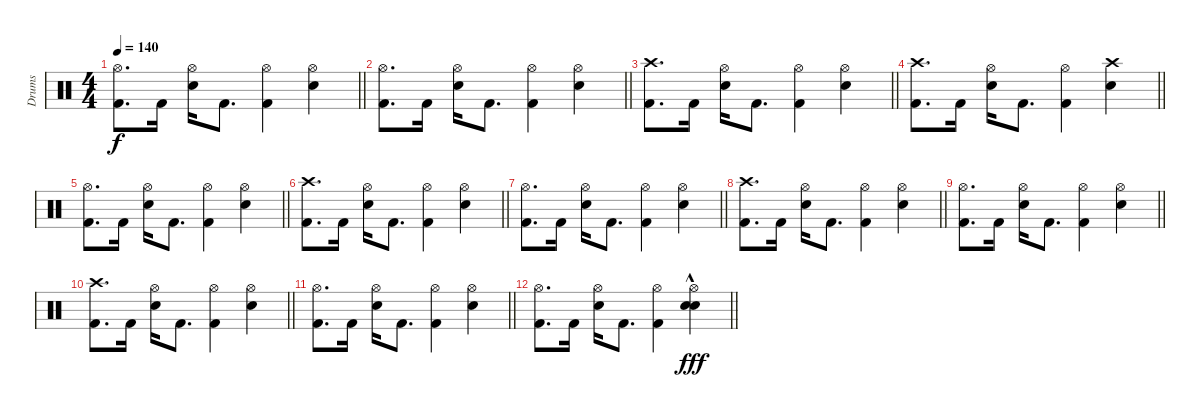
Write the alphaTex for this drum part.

\track ("Drums" "Drums") {instrument percussion}
\staff {score}
\articulation defaults
\ts (4 4)
\tempo 140
\clef neutral
\barLineRight lightlight
\ks c
("Hi-Hat (open)" "Kick (hit) 2").8{d dy f} "Kick (hit) 2".16 ("Electric Snare (hit)" "Hi-Hat (open)").16 "Kick (hit) 2".8{d} ("Hi-Hat (open)" "Kick (hit) 2").4 ("Hi-Hat (open)" "Snare (hit) 2").4 |
\barLineRight lightlight
("Hi-Hat (open)" "Kick (hit) 2").8{d} "Kick (hit) 2".16 ("Electric Snare (hit)" "Hi-Hat (open)").16 "Kick (hit) 2".8{d} ("Hi-Hat (open)" "Kick (hit) 2").4 ("Hi-Hat (open)" "Snare (hit) 2").4 |
\barLineRight lightlight
("Crash high (hit)" "Kick (hit) 2").8{d} "Kick (hit) 2".16 ("Electric Snare (hit)" "Hi-Hat (open)").16 "Kick (hit) 2".8{d} ("Hi-Hat (open)" "Kick (hit) 2").4 ("Hi-Hat (open)" "Snare (hit) 2").4 |
\barLineRight lightlight
("Crash high (hit)" "Kick (hit) 2").8{d} "Kick (hit) 2".16 ("Electric Snare (hit)" "Hi-Hat (open)").16 "Kick (hit) 2".8{d} ("Hi-Hat (open)" "Kick (hit) 2").4 ("Crash high (hit)" "Snare (hit) 2").4 |
\barLineRight lightlight
("Hi-Hat (open)" "Kick (hit) 2").8{d} "Kick (hit) 2".16 ("Electric Snare (hit)" "Hi-Hat (open)").16 "Kick (hit) 2".8{d} ("Hi-Hat (open)" "Kick (hit) 2").4 ("Hi-Hat (open)" "Snare (hit) 2").4 |
\barLineRight lightlight
("Crash high (hit)" "Kick (hit) 2").8{d} "Kick (hit) 2".16 ("Electric Snare (hit)" "Hi-Hat (open)").16 "Kick (hit) 2".8{d} ("Hi-Hat (open)" "Kick (hit) 2").4 ("Hi-Hat (open)" "Snare (hit) 2").4 |
\barLineRight lightlight
("Hi-Hat (open)" "Kick (hit) 2").8{d} "Kick (hit) 2".16 ("Electric Snare (hit)" "Hi-Hat (open)").16 "Kick (hit) 2".8{d} ("Hi-Hat (open)" "Kick (hit) 2").4 ("Hi-Hat (open)" "Snare (hit) 2").4 |
\barLineRight lightlight
("Crash high (hit)" "Kick (hit) 2").8{d} "Kick (hit) 2".16 ("Electric Snare (hit)" "Hi-Hat (open)").16 "Kick (hit) 2".8{d} ("Hi-Hat (open)" "Kick (hit) 2").4 ("Hi-Hat (open)" "Snare (hit) 2").4 |
\barLineRight lightlight
("Hi-Hat (open)" "Kick (hit) 2").8{d} "Kick (hit) 2".16 ("Electric Snare (hit)" "Hi-Hat (open)").16 "Kick (hit) 2".8{d} ("Hi-Hat (open)" "Kick (hit) 2").4 ("Hi-Hat (open)" "Snare (hit) 2").4 |
\barLineRight lightlight
("Crash high (hit)" "Kick (hit) 2").8{d} "Kick (hit) 2".16 ("Electric Snare (hit)" "Hi-Hat (open)").16 "Kick (hit) 2".8{d} ("Hi-Hat (open)" "Kick (hit) 2").4 ("Hi-Hat (open)" "Snare (hit) 2").4 |
\barLineRight lightlight
("Hi-Hat (open)" "Kick (hit) 2").8{d} "Kick (hit) 2".16 ("Electric Snare (hit)" "Hi-Hat (open)").16 "Kick (hit) 2".8{d} ("Hi-Hat (open)" "Kick (hit) 2").4 ("Hi-Hat (open)" "Snare (hit) 2").4 |
\barLineRight lightlight
("Hi-Hat (open)" "Kick (hit) 2").8{d} "Kick (hit) 2".16 ("Electric Snare (hit)" "Hi-Hat (open)").16 "Kick (hit) 2".8{d} ("Hi-Hat (open)" "Kick (hit) 2").4 ("Hi-Hat (open)"{hac} "Snare (hit) 2"{hac} "Electric Snare (hit)").4{dy fff}
